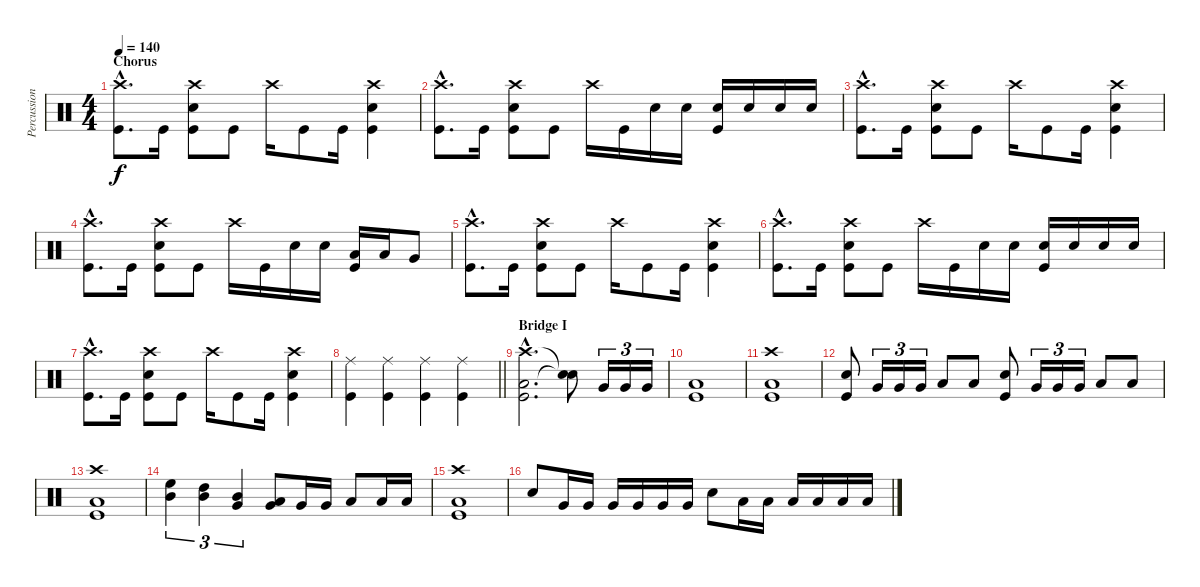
\track ("Percussion" "Percussion") {instrument percussion}
\staff {score}
\articulation defaults
\ts (4 4)
\section ("" "Chorus")
\tempo 140
\clef neutral
\ks c
("Crash high (hit)"{hac} "Kick (hit)"{hac}).8{d dy f} "Kick (hit)".16 ("Crash high (hit)" "Snare (hit) 2" "Kick (hit)").8 "Kick (hit)".8 "Crash high (hit)".16 "Kick (hit)".8 "Kick (hit)".16 ("Crash high (hit)" "Snare (hit) 2" "Kick (hit)").4 |
("Crash high (hit)"{hac} "Kick (hit)"{hac}).8{d} "Kick (hit)".16 ("Crash high (hit)" "Snare (hit) 2" "Kick (hit)").8 "Kick (hit)".8 "Crash high (hit)".16 "Kick (hit)".16 "Snare (hit) 2".16 "Snare (hit) 2".16 ("Snare (hit) 2" "Kick (hit)").16 "Snare (hit) 2".16 "Snare (hit) 2".16 "Snare (hit) 2".16 |
("Crash high (hit)"{hac} "Kick (hit)"{hac}).8{d} "Kick (hit)".16 ("Crash high (hit)" "Snare (hit) 2" "Kick (hit)").8 "Kick (hit)".8 "Crash high (hit)".16 "Kick (hit)".8 "Kick (hit)".16 ("Crash high (hit)" "Snare (hit) 2" "Kick (hit)").4 |
("Crash high (hit)"{hac} "Kick (hit)"{hac}).8{d} "Kick (hit)".16 ("Crash high (hit)" "Snare (hit) 2" "Kick (hit)").8 "Kick (hit)".8 "Crash high (hit)".16 "Kick (hit)".16 "Snare (hit) 2".16 "Snare (hit) 2".16 ("Low Tom (hit)" "Kick (hit)").16 "Low Tom (hit)".16 "Very Low Tom (hit)".8 |
("Crash high (hit)"{hac} "Kick (hit)"{hac}).8{d} "Kick (hit)".16 ("Crash high (hit)" "Snare (hit) 2" "Kick (hit)").8 "Kick (hit)".8 "Crash high (hit)".16 "Kick (hit)".8 "Kick (hit)".16 ("Crash high (hit)" "Snare (hit) 2" "Kick (hit)").4 |
("Crash high (hit)"{hac} "Kick (hit)"{hac}).8{d} "Kick (hit)".16 ("Crash high (hit)" "Snare (hit) 2" "Kick (hit)").8 "Kick (hit)".8 "Crash high (hit)".16 "Kick (hit)".16 "Snare (hit) 2".16 "Snare (hit) 2".16 ("Snare (hit) 2" "Kick (hit)").16 "Snare (hit) 2".16 "Snare (hit) 2".16 "Snare (hit) 2".16 |
("Crash high (hit)"{hac} "Kick (hit)"{hac}).8{d} "Kick (hit)".16 ("Crash high (hit)" "Snare (hit) 2" "Kick (hit)").8 "Kick (hit)".8 "Crash high (hit)".16 "Kick (hit)".8 "Kick (hit)".16 ("Crash high (hit)" "Snare (hit) 2" "Kick (hit)").4 |
\barLineRight lightlight
("Ride (middle)" "Kick (hit)").4 ("Ride (middle)" "Kick (hit)").4 ("Ride (middle)" "Kick (hit)").4 ("Ride (middle)" "Kick (hit)").4 |
\section ("" "Bridge I")
("Crash high (hit)"{hac} "Low Floor Tom (hit)"{hac} "Kick (hit)"{hac}).2{d} ("Snare (hit)"{t} "Snare (hit)"{t}).8 "Very Low Tom (hit)".16{tu (3 2)} "Very Low Tom (hit)".16{tu (3 2)} "Very Low Tom (hit)".16{tu (3 2)} |
("Low Floor Tom (hit)" "Kick (hit)").1 |
("Crash high (hit)" "Low Floor Tom (hit)" "Kick (hit)").1 |
("Snare (hit) 2" "Kick (hit)").8 "Very Low Tom (hit)".16{tu (3 2)} "Very Low Tom (hit)".16{tu (3 2)} "Very Low Tom (hit)".16{tu (3 2)} "Low Floor Tom (hit)".8 "Low Floor Tom (hit)".8 ("Snare (hit) 2" "Kick (hit)").8 "Very Low Tom (hit)".16{tu (3 2)} "Very Low Tom (hit)".16{tu (3 2)} "Very Low Tom (hit)".16{tu (3 2)} "Low Floor Tom (hit)".8 "Low Floor Tom (hit)".8 |
("Crash high (hit)" "Low Floor Tom (hit)" "Kick (hit)").1 |
("High Floor Tom (hit)" "Mid Tom (hit)").4{tu (3 2)} ("High Tom (hit)" "Mid Tom (hit)").4{tu (3 2)} ("Mid Tom (hit)" "Very Low Tom (hit)").4{tu (3 2)} ("Low Tom (hit)" "Very Low Tom (hit)").8 "Very Low Tom (hit)".16 "Very Low Tom (hit)".16 "Low Floor Tom (hit)".8 "Low Floor Tom (hit)".16 "Low Floor Tom (hit)".16 |
("Crash high (hit)" "Low Floor Tom (hit)" "Kick (hit)").1 |
"Snare (hit) 2".8 "Very Low Tom (hit)".16 "Very Low Tom (hit)".16 "Very Low Tom (hit)".16 "Very Low Tom (hit)".16 "Very Low Tom (hit)".16 "Very Low Tom (hit)".16 "Snare (hit) 2".8 "Low Floor Tom (hit)".16 "Low Floor Tom (hit)".16 "Low Floor Tom (hit)".16 "Low Floor Tom (hit)".16 "Low Floor Tom (hit)".16 "Low Floor Tom (hit)".16
